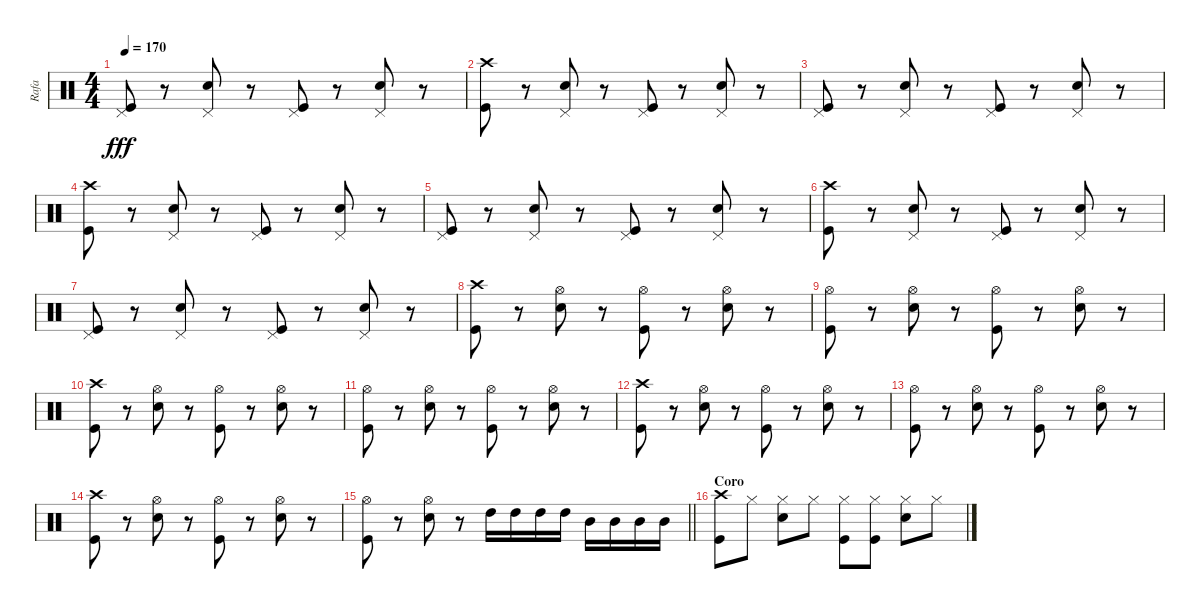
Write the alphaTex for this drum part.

\track ("Rafa" "Rafa") {instrument percussion}
\staff {score}
\articulation defaults
\ts (4 4)
\tempo 170
\clef neutral
\ks c
("Pedal Hi-Hat (hit)" "Kick (hit)").8{dy fff} r.8 ("Pedal Hi-Hat (hit)" "Electric Snare (hit)").8 r.8 ("Pedal Hi-Hat (hit)" "Kick (hit)").8 r.8 ("Pedal Hi-Hat (hit)" "Electric Snare (hit)").8 r.8 |
("Crash high (hit)" "Kick (hit)").8 r.8 ("Pedal Hi-Hat (hit)" "Electric Snare (hit)").8 r.8 ("Pedal Hi-Hat (hit)" "Kick (hit)").8 r.8 ("Pedal Hi-Hat (hit)" "Electric Snare (hit)").8 r.8 |
("Pedal Hi-Hat (hit)" "Kick (hit)").8 r.8 ("Pedal Hi-Hat (hit)" "Electric Snare (hit)").8 r.8 ("Pedal Hi-Hat (hit)" "Kick (hit)").8 r.8 ("Pedal Hi-Hat (hit)" "Electric Snare (hit)").8 r.8 |
("Crash high (hit)" "Kick (hit)").8 r.8 ("Pedal Hi-Hat (hit)" "Electric Snare (hit)").8 r.8 ("Pedal Hi-Hat (hit)" "Kick (hit)").8 r.8 ("Pedal Hi-Hat (hit)" "Electric Snare (hit)").8 r.8 |
("Pedal Hi-Hat (hit)" "Kick (hit)").8 r.8 ("Pedal Hi-Hat (hit)" "Electric Snare (hit)").8 r.8 ("Pedal Hi-Hat (hit)" "Kick (hit)").8 r.8 ("Pedal Hi-Hat (hit)" "Electric Snare (hit)").8 r.8 |
("Crash high (hit)" "Kick (hit)").8 r.8 ("Pedal Hi-Hat (hit)" "Electric Snare (hit)").8 r.8 ("Pedal Hi-Hat (hit)" "Kick (hit)").8 r.8 ("Pedal Hi-Hat (hit)" "Electric Snare (hit)").8 r.8 |
("Pedal Hi-Hat (hit)" "Kick (hit)").8 r.8 ("Pedal Hi-Hat (hit)" "Electric Snare (hit)").8 r.8 ("Pedal Hi-Hat (hit)" "Kick (hit)").8 r.8 ("Pedal Hi-Hat (hit)" "Electric Snare (hit)").8 r.8 |
("Crash high (hit)" "Kick (hit)").8 r.8 ("Hi-Hat (open)" "Electric Snare (hit)").8 r.8 ("Hi-Hat (open)" "Kick (hit)").8 r.8 ("Hi-Hat (open)" "Electric Snare (hit)").8 r.8 |
("Hi-Hat (open)" "Kick (hit)").8 r.8 ("Hi-Hat (open)" "Electric Snare (hit)").8 r.8 ("Hi-Hat (open)" "Kick (hit)").8 r.8 ("Hi-Hat (open)" "Electric Snare (hit)").8 r.8 |
("Crash high (hit)" "Kick (hit)").8 r.8 ("Hi-Hat (open)" "Electric Snare (hit)").8 r.8 ("Hi-Hat (open)" "Kick (hit)").8 r.8 ("Hi-Hat (open)" "Electric Snare (hit)").8 r.8 |
("Hi-Hat (open)" "Kick (hit)").8 r.8 ("Hi-Hat (open)" "Electric Snare (hit)").8 r.8 ("Hi-Hat (open)" "Kick (hit)").8 r.8 ("Hi-Hat (open)" "Electric Snare (hit)").8 r.8 |
("Crash high (hit)" "Kick (hit)").8 r.8 ("Hi-Hat (open)" "Electric Snare (hit)").8 r.8 ("Hi-Hat (open)" "Kick (hit)").8 r.8 ("Hi-Hat (open)" "Electric Snare (hit)").8 r.8 |
("Hi-Hat (open)" "Kick (hit)").8 r.8 ("Hi-Hat (open)" "Electric Snare (hit)").8 r.8 ("Hi-Hat (open)" "Kick (hit)").8 r.8 ("Hi-Hat (open)" "Electric Snare (hit)").8 r.8 |
("Crash high (hit)" "Kick (hit)").8 r.8 ("Hi-Hat (open)" "Electric Snare (hit)").8 r.8 ("Hi-Hat (open)" "Kick (hit)").8 r.8 ("Hi-Hat (open)" "Electric Snare (hit)").8 r.8 |
\barLineRight lightlight
("Hi-Hat (open)" "Kick (hit)").8 r.8 ("Hi-Hat (open)" "Electric Snare (hit)").8 r.8 "High Tom (hit)".16 "High Tom (hit)".16 "High Tom (hit)".16 "High Tom (hit)".16 "Mid Tom (hit)".16 "Mid Tom (hit)".16 "Mid Tom (hit)".16 "Mid Tom (hit)".16 |
\section ("" "Coro")
("Crash high (hit)" "Kick (hit)").8 "Hi-Hat (closed)".8 ("Hi-Hat (closed)" "Electric Snare (hit)").8 "Hi-Hat (closed)".8 ("Hi-Hat (closed)" "Kick (hit)").8 ("Hi-Hat (closed)" "Kick (hit)").8 ("Hi-Hat (closed)" "Electric Snare (hit)").8 "Hi-Hat (closed)".8
